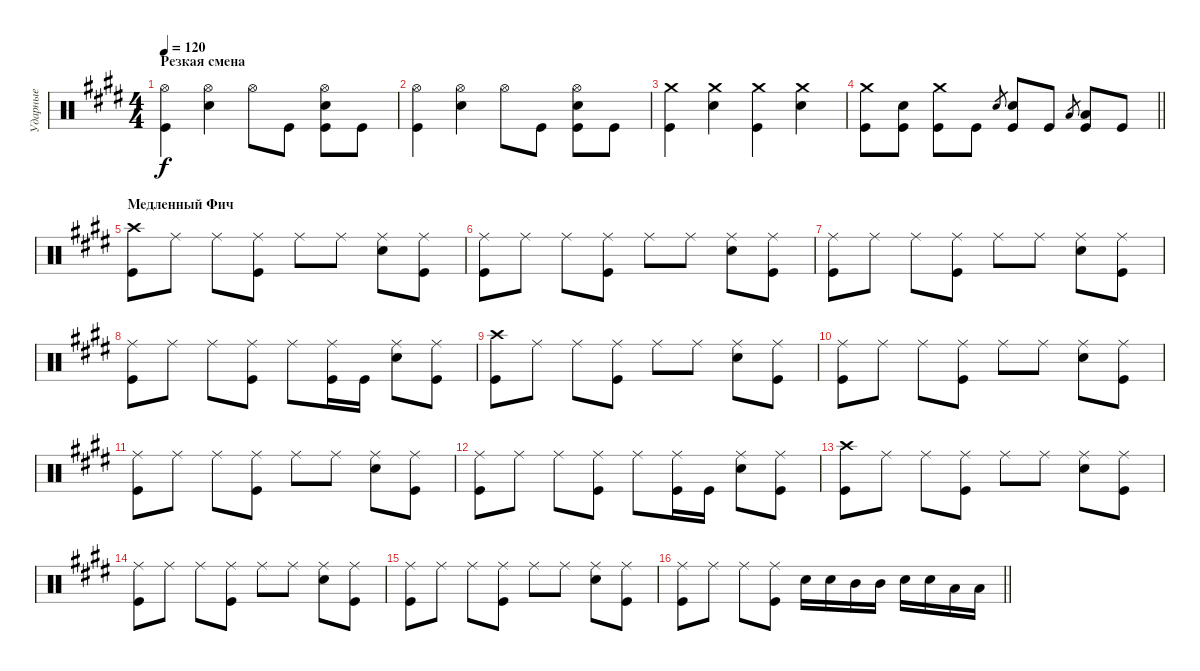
\track ("Ударные" "Ударные") {instrument percussion}
\staff {score}
\articulation defaults
\ts (4 4)
\section ("" "Резкая смена")
\tempo 120
\clef neutral
\ks e
("Hi-Hat (open)" "Kick (hit)").4{dy f} ("Hi-Hat (open)" "Electric Snare (hit)").4 "Hi-Hat (open)".8 "Kick (hit)".8 ("Hi-Hat (open)" "Electric Snare (hit)" "Kick (hit)").8 "Kick (hit)".8 |
("Hi-Hat (open)" "Kick (hit)").4 ("Hi-Hat (open)" "Electric Snare (hit)").4 "Hi-Hat (open)".8 "Kick (hit)".8 ("Hi-Hat (open)" "Electric Snare (hit)" "Kick (hit)").8 "Kick (hit)".8 |
("Crash medium (hit)" "Kick (hit)").4 ("Crash medium (hit)" "Electric Snare (hit)").4 ("Crash medium (hit)" "Kick (hit)").4 ("Crash medium (hit)" "Electric Snare (hit)").4 |
\barLineRight lightlight
("Crash medium (hit)" "Kick (hit)").8 ("Electric Snare (hit)" "Kick (hit)").8 ("Crash medium (hit)" "Kick (hit)").8 "Kick (hit)".8 "Electric Snare (hit)".8{gr} ("Electric Snare (hit)" "Kick (hit)").8 "Kick (hit)".8 "Low Floor Tom (hit)".8{gr} ("Low Floor Tom (hit)" "Kick (hit)").8 "Kick (hit)".8 |
\section ("" "Медленный Фич")
("Crash high (hit)" "Kick (hit)").8 "Ride (middle)".8 "Ride (middle)".8 ("Ride (middle)" "Kick (hit)").8 "Ride (middle)".8 "Ride (middle)".8 ("Ride (middle)" "Electric Snare (hit)").8 ("Ride (middle)" "Kick (hit)").8 |
("Ride (middle)" "Kick (hit)").8 "Ride (middle)".8 "Ride (middle)".8 ("Ride (middle)" "Kick (hit)").8 "Ride (middle)".8 "Ride (middle)".8 ("Ride (middle)" "Electric Snare (hit)").8 ("Ride (middle)" "Kick (hit)").8 |
("Ride (middle)" "Kick (hit)").8 "Ride (middle)".8 "Ride (middle)".8 ("Ride (middle)" "Kick (hit)").8 "Ride (middle)".8 "Ride (middle)".8 ("Ride (middle)" "Electric Snare (hit)").8 ("Ride (middle)" "Kick (hit)").8 |
("Ride (middle)" "Kick (hit)").8 "Ride (middle)".8 "Ride (middle)".8 ("Ride (middle)" "Kick (hit)").8 "Ride (middle)".8 ("Ride (middle)" "Kick (hit)").16 "Kick (hit)".16 ("Ride (middle)" "Electric Snare (hit)").8 ("Ride (middle)" "Kick (hit)").8 |
("Crash high (hit)" "Kick (hit)").8 "Ride (middle)".8 "Ride (middle)".8 ("Ride (middle)" "Kick (hit)").8 "Ride (middle)".8 "Ride (middle)".8 ("Ride (middle)" "Electric Snare (hit)").8 ("Ride (middle)" "Kick (hit)").8 |
("Ride (middle)" "Kick (hit)").8 "Ride (middle)".8 "Ride (middle)".8 ("Ride (middle)" "Kick (hit)").8 "Ride (middle)".8 "Ride (middle)".8 ("Ride (middle)" "Electric Snare (hit)").8 ("Ride (middle)" "Kick (hit)").8 |
("Ride (middle)" "Kick (hit)").8 "Ride (middle)".8 "Ride (middle)".8 ("Ride (middle)" "Kick (hit)").8 "Ride (middle)".8 "Ride (middle)".8 ("Ride (middle)" "Electric Snare (hit)").8 ("Ride (middle)" "Kick (hit)").8 |
("Ride (middle)" "Kick (hit)").8 "Ride (middle)".8 "Ride (middle)".8 ("Ride (middle)" "Kick (hit)").8 "Ride (middle)".8 ("Ride (middle)" "Kick (hit)").16 "Kick (hit)".16 ("Ride (middle)" "Electric Snare (hit)").8 ("Ride (middle)" "Kick (hit)").8 |
("Crash high (hit)" "Kick (hit)").8 "Ride (middle)".8 "Ride (middle)".8 ("Ride (middle)" "Kick (hit)").8 "Ride (middle)".8 "Ride (middle)".8 ("Ride (middle)" "Electric Snare (hit)").8 ("Ride (middle)" "Kick (hit)").8 |
("Ride (middle)" "Kick (hit)").8 "Ride (middle)".8 "Ride (middle)".8 ("Ride (middle)" "Kick (hit)").8 "Ride (middle)".8 "Ride (middle)".8 ("Ride (middle)" "Electric Snare (hit)").8 ("Ride (middle)" "Kick (hit)").8 |
("Ride (middle)" "Kick (hit)").8 "Ride (middle)".8 "Ride (middle)".8 ("Ride (middle)" "Kick (hit)").8 "Ride (middle)".8 "Ride (middle)".8 ("Ride (middle)" "Electric Snare (hit)").8 ("Ride (middle)" "Kick (hit)").8 |
\barLineRight lightlight
("Ride (middle)" "Kick (hit)").8 "Ride (middle)".8 "Ride (middle)".8 ("Ride (middle)" "Kick (hit)").8 "Electric Snare (hit)".16 "Electric Snare (hit)".16 "Mid Tom (hit)".16 "Mid Tom (hit)".16 "Electric Snare (hit)".16 "Electric Snare (hit)".16 "Low Tom (hit)".16 "Low Tom (hit)".16
